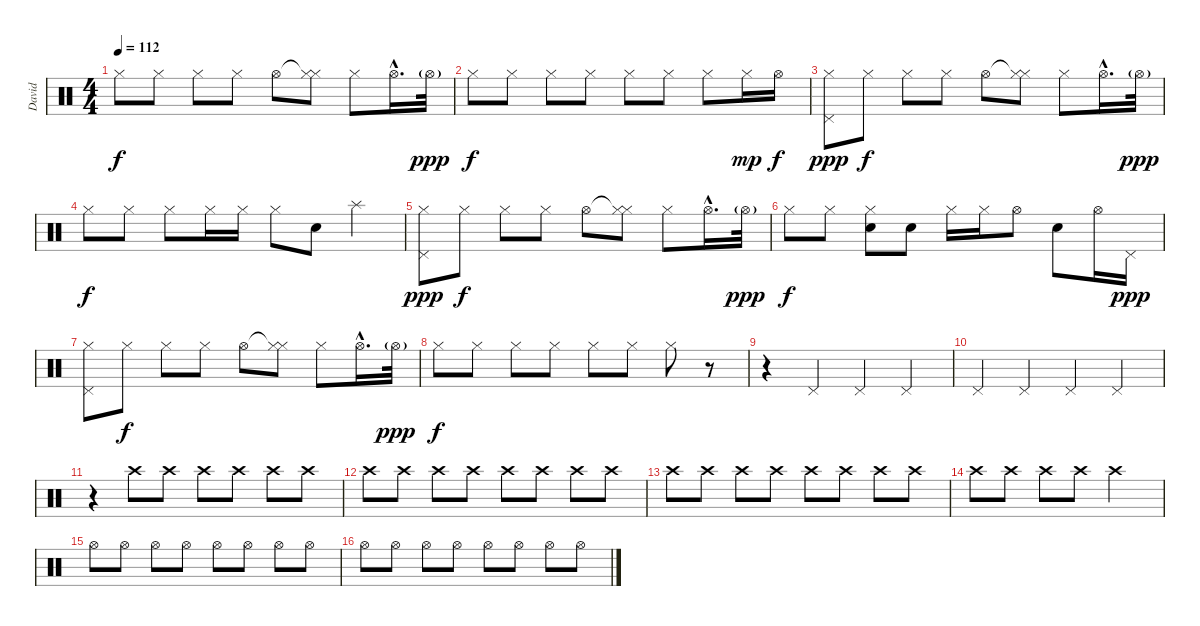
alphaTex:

\track ("David" "David") {instrument percussion}
\staff {score}
\articulation defaults
\ts (4 4)
\tempo 112
\clef neutral
\ks c "Hi-Hat (closed)".8{dy f} "Hi-Hat (closed)".8 "Hi-Hat (closed)".8 "Hi-Hat (closed)".8 "Hi-Hat (open)".8
("Hi-Hat (closed)"{t} "Hi-Hat (closed)").8 "Hi-Hat (closed)".8 "Hi-Hat (open)"{hac}.16{d} "Hi-Hat (open)"{g}.32{dy ppp} |
"Hi-Hat (closed)".8{dy f} "Hi-Hat (closed)".8 "Hi-Hat (closed)".8 "Hi-Hat (closed)".8 "Hi-Hat (closed)".8 "Hi-Hat (closed)".8 "Hi-Hat (closed)".8 "Hi-Hat (closed)".16{dy mp} "Hi-Hat (open)".16{dy f} |
("Pedal Hi-Hat (hit)" "Hi-Hat (closed)").8{dy ppp} "Hi-Hat (closed)".8{dy f} "Hi-Hat (closed)".8 "Hi-Hat (closed)".8 "Hi-Hat (open)".8 ("Hi-Hat (closed)"{t} "Hi-Hat (closed)").8 "Hi-Hat (closed)".8 "Hi-Hat (open)"{hac}.16{d} "Hi-Hat (open)"{g}.32{dy ppp} |
"Hi-Hat (closed)".8{dy f} "Hi-Hat (closed)".8 "Hi-Hat (closed)".8 "Hi-Hat (closed)".16 "Hi-Hat (closed)".16 "Hi-Hat (closed)".8 "Metronome (bell)".8 "Splash (hit)".4 |
("Pedal Hi-Hat (hit)" "Hi-Hat (closed)").8{dy ppp} "Hi-Hat (closed)".8{dy f} "Hi-Hat (closed)".8 "Hi-Hat (closed)".8 "Hi-Hat (open)".8 ("Hi-Hat (closed)"{t} "Hi-Hat (closed)").8 "Hi-Hat (closed)".8 "Hi-Hat (open)"{hac}.16{d} "Hi-Hat (open)"{g}.32{dy ppp} |
"Hi-Hat (closed)".8{dy f} "Hi-Hat (closed)".8 ("Hi-Hat (closed)" "Snare (hit) 2").8 "Metronome (bell)".8 "Hi-Hat (closed)".16 "Hi-Hat (closed)".16 "Hi-Hat (open)".8 "Snare (hit) 2".8 "Hi-Hat (open)".16 "Pedal Hi-Hat (hit)".16{dy ppp} |
("Pedal Hi-Hat (hit)" "Hi-Hat (closed)").8 "Hi-Hat (closed)".8{dy f} "Hi-Hat (closed)".8 "Hi-Hat (closed)".8 "Hi-Hat (open)".8 ("Hi-Hat (closed)"{t} "Hi-Hat (closed)").8 "Hi-Hat (closed)".8 "Hi-Hat (open)"{hac}.16{d} "Hi-Hat (open)"{g}.32{dy ppp} |
"Hi-Hat (closed)".8{dy f} "Hi-Hat (closed)".8 "Hi-Hat (closed)".8 "Hi-Hat (closed)".8 "Hi-Hat (closed)".8 "Hi-Hat (closed)".8 "Hi-Hat (closed)".8 r.8 |
r.4 "Pedal Hi-Hat (hit)".4 "Pedal Hi-Hat (hit)".4 "Pedal Hi-Hat (hit)".4 |
"Pedal Hi-Hat (hit)".4 "Pedal Hi-Hat (hit)".4 "Pedal Hi-Hat (hit)".4 "Pedal Hi-Hat (hit)".4 |
r.4 "Crash high (hit)".8 "Crash high (hit)".8 "Crash high (hit)".8 "Crash high (hit)".8 "Crash high (hit)".8 "Crash high (hit)".8 |
"Crash high (hit)".8 "Crash high (hit)".8 "Crash high (hit)".8 "Crash high (hit)".8 "Crash high (hit)".8 "Crash high (hit)".8 "Crash high (hit)".8 "Crash high (hit)".8 |
"Crash high (hit)".8 "Crash high (hit)".8 "Crash high (hit)".8 "Crash high (hit)".8 "Crash high (hit)".8 "Crash high (hit)".8 "Crash high (hit)".8 "Crash high (hit)".8 |
"Crash high (hit)".8 "Crash high (hit)".8 "Crash high (hit)".8 "Crash high (hit)".8 "Crash high (hit)".2 |
"Hi-Hat (open)".8 "Hi-Hat (open)".8 "Hi-Hat (open)".8 "Hi-Hat (open)".8 "Hi-Hat (open)".8 "Hi-Hat (open)".8 "Hi-Hat (open)".8 "Hi-Hat (open)".8 |
"Hi-Hat (open)".8 "Hi-Hat (open)".8 "Hi-Hat (open)".8 "Hi-Hat (open)".8 "Hi-Hat (open)".8 "Hi-Hat (open)".8 "Hi-Hat (open)".8 "Hi-Hat (open)".8
